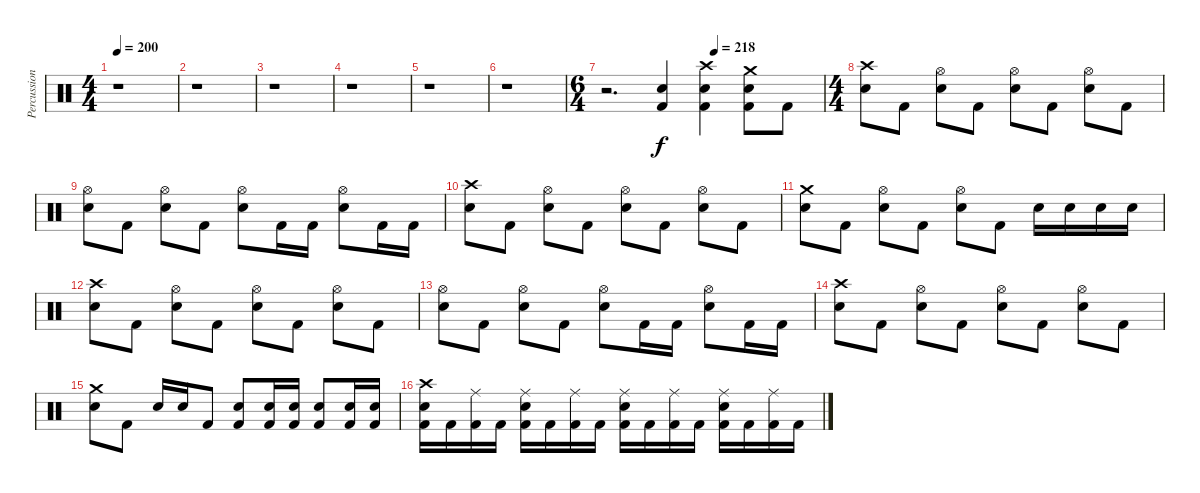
\track ("Percussion" "Percussion") {instrument percussion}
\staff {score}
\articulation defaults
\ts (4 4)
\tempo 200
\clef neutral
\ks c
r.1{dy f} |
r.1 |
r.1 |
r.1 |
r.1 |
r.1 |
\ts (6 4)
\tempo (218 0.5)
r.2{d} ("Electric Snare (hit)" "Kick (hit) 2").4 ("Crash high (hit)" "Electric Snare (hit)" "Kick (hit) 2").4 ("Crash medium (hit)" "Electric Snare (hit)" "Kick (hit) 2").8 "Kick (hit) 2".8 |
\ts (4 4)
\section ("" "")
("Crash high (hit)" "Electric Snare (hit)").8 "Kick (hit) 2".8 ("Hi-Hat (open)" "Electric Snare (hit)").8 "Kick (hit) 2".8 ("Hi-Hat (open)" "Electric Snare (hit)").8 "Kick (hit) 2".8 ("Hi-Hat (open)" "Electric Snare (hit)").8 "Kick (hit) 2".8 |
("Hi-Hat (open)" "Electric Snare (hit)").8 "Kick (hit) 2".8 ("Hi-Hat (open)" "Electric Snare (hit)").8 "Kick (hit) 2".8 ("Hi-Hat (open)" "Electric Snare (hit)").8 "Kick (hit) 2".16 "Kick (hit) 2".16 ("Hi-Hat (open)" "Electric Snare (hit)").8 "Kick (hit) 2".16 "Kick (hit) 2".16 |
("Crash high (hit)" "Electric Snare (hit)").8 "Kick (hit) 2".8 ("Hi-Hat (open)" "Electric Snare (hit)").8 "Kick (hit) 2".8 ("Hi-Hat (open)" "Electric Snare (hit)").8 "Kick (hit) 2".8 ("Hi-Hat (open)" "Electric Snare (hit)").8 "Kick (hit) 2".8 |
("Crash medium (hit)" "Electric Snare (hit)").8 "Kick (hit) 2".8 ("Hi-Hat (open)" "Electric Snare (hit)").8 "Kick (hit) 2".8 ("Hi-Hat (open)" "Electric Snare (hit)").8 "Kick (hit) 2".8 "Electric Snare (hit)".16 "Electric Snare (hit)".16 "Electric Snare (hit)".16 "Electric Snare (hit)".16 |
("Crash high (hit)" "Electric Snare (hit)").8 "Kick (hit) 2".8 ("Hi-Hat (open)" "Electric Snare (hit)").8 "Kick (hit) 2".8 ("Hi-Hat (open)" "Electric Snare (hit)").8 "Kick (hit) 2".8 ("Hi-Hat (open)" "Electric Snare (hit)").8 "Kick (hit) 2".8 |
("Hi-Hat (open)" "Electric Snare (hit)").8 "Kick (hit) 2".8 ("Hi-Hat (open)" "Electric Snare (hit)").8 "Kick (hit) 2".8 ("Hi-Hat (open)" "Electric Snare (hit)").8 "Kick (hit) 2".16 "Kick (hit) 2".16 ("Hi-Hat (open)" "Electric Snare (hit)").8 "Kick (hit) 2".16 "Kick (hit) 2".16 |
("Crash high (hit)" "Electric Snare (hit)").8 "Kick (hit) 2".8 ("Hi-Hat (open)" "Electric Snare (hit)").8 "Kick (hit) 2".8 ("Hi-Hat (open)" "Electric Snare (hit)").8 "Kick (hit) 2".8 ("Hi-Hat (open)" "Electric Snare (hit)").8 "Kick (hit) 2".8 |
("Crash medium (hit)" "Electric Snare (hit)").8 "Kick (hit) 2".8 "Electric Snare (hit)".16 "Electric Snare (hit)".16 "Kick (hit) 2".8 ("Electric Snare (hit)" "Kick (hit) 2").8 ("Electric Snare (hit)" "Kick (hit) 2").16 ("Electric Snare (hit)" "Kick (hit) 2").16 ("Electric Snare (hit)" "Kick (hit) 2").8 ("Electric Snare (hit)" "Kick (hit) 2").16 ("Electric Snare (hit)" "Kick (hit) 2").16 |
("Crash high (hit)" "Electric Snare (hit)" "Kick (hit) 2").16 "Kick (hit) 2".16 ("Ride (middle)" "Kick (hit) 2").16 "Kick (hit) 2".16 ("Ride (middle)" "Electric Snare (hit)" "Kick (hit) 2").16 "Kick (hit) 2".16 ("Ride (middle)" "Kick (hit) 2").16 "Kick (hit) 2".16 ("Ride (middle)" "Electric Snare (hit)" "Kick (hit) 2").16 "Kick (hit) 2".16 ("Ride (middle)" "Kick (hit) 2").16 "Kick (hit) 2".16 ("Ride (middle)" "Electric Snare (hit)" "Kick (hit) 2").16 "Kick (hit) 2".16 ("Ride (middle)" "Kick (hit) 2").16 "Kick (hit) 2".16
